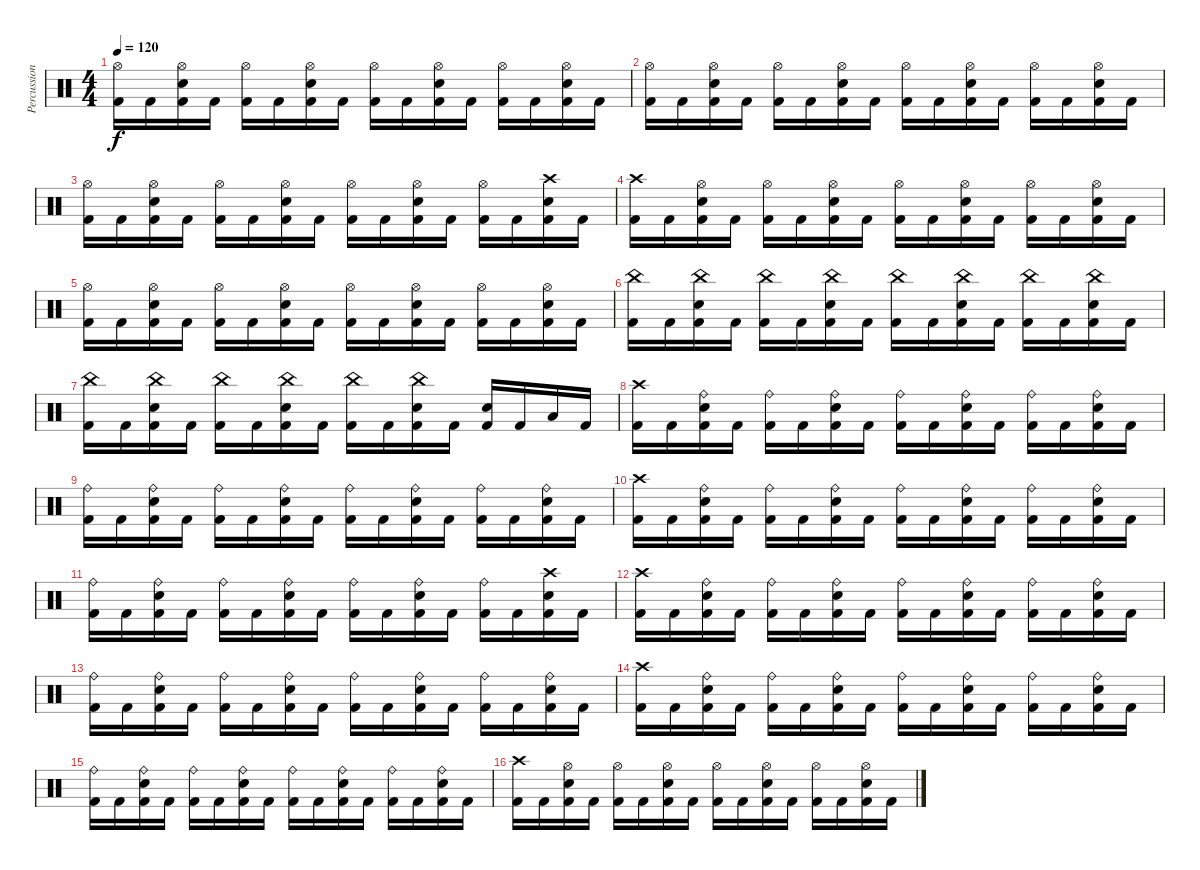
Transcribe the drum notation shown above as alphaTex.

\track ("Percussion" "Percussion") {instrument percussion}
\staff {score}
\articulation defaults
\ts (4 4)
\tempo 120
\clef neutral
\ks c
("Hi-Hat (open)" "Kick (hit) 2").16{dy f} "Kick (hit) 2".16 ("Hi-Hat (open)" "Snare (hit) 2" "Kick (hit) 2").16 "Kick (hit) 2".16 ("Hi-Hat (open)" "Kick (hit) 2").16 "Kick (hit) 2".16 ("Hi-Hat (open)" "Snare (hit) 2" "Kick (hit) 2").16 "Kick (hit) 2".16 ("Hi-Hat (open)" "Kick (hit) 2").16 "Kick (hit) 2".16 ("Hi-Hat (open)" "Snare (hit) 2" "Kick (hit) 2").16 "Kick (hit) 2".16 ("Hi-Hat (open)" "Kick (hit) 2").16 "Kick (hit) 2".16 ("Hi-Hat (open)" "Snare (hit) 2" "Kick (hit) 2").16 "Kick (hit) 2".16 |
("Hi-Hat (open)" "Kick (hit) 2").16 "Kick (hit) 2".16 ("Hi-Hat (open)" "Snare (hit) 2" "Kick (hit) 2").16 "Kick (hit) 2".16 ("Hi-Hat (open)" "Kick (hit) 2").16 "Kick (hit) 2".16 ("Hi-Hat (open)" "Snare (hit) 2" "Kick (hit) 2").16 "Kick (hit) 2".16 ("Hi-Hat (open)" "Kick (hit) 2").16 "Kick (hit) 2".16 ("Hi-Hat (open)" "Snare (hit) 2" "Kick (hit) 2").16 "Kick (hit) 2".16 ("Hi-Hat (open)" "Kick (hit) 2").16 "Kick (hit) 2".16 ("Hi-Hat (open)" "Snare (hit) 2" "Kick (hit) 2").16 "Kick (hit) 2".16 |
("Hi-Hat (open)" "Kick (hit) 2").16 "Kick (hit) 2".16 ("Hi-Hat (open)" "Snare (hit) 2" "Kick (hit) 2").16 "Kick (hit) 2".16 ("Hi-Hat (open)" "Kick (hit) 2").16 "Kick (hit) 2".16 ("Hi-Hat (open)" "Snare (hit) 2" "Kick (hit) 2").16 "Kick (hit) 2".16 ("Hi-Hat (open)" "Kick (hit) 2").16 "Kick (hit) 2".16 ("Hi-Hat (open)" "Snare (hit) 2" "Kick (hit) 2").16 "Kick (hit) 2".16 ("Hi-Hat (open)" "Kick (hit) 2").16 "Kick (hit) 2".16 ("Crash high (hit)" "Snare (hit) 2" "Kick (hit) 2").16 "Kick (hit) 2".16 |
("Crash high (hit)" "Kick (hit) 2").16 "Kick (hit) 2".16 ("Hi-Hat (open)" "Snare (hit) 2" "Kick (hit) 2").16 "Kick (hit) 2".16 ("Hi-Hat (open)" "Kick (hit) 2").16 "Kick (hit) 2".16 ("Hi-Hat (open)" "Snare (hit) 2" "Kick (hit) 2").16 "Kick (hit) 2".16 ("Hi-Hat (open)" "Kick (hit) 2").16 "Kick (hit) 2".16 ("Hi-Hat (open)" "Snare (hit) 2" "Kick (hit) 2").16 "Kick (hit) 2".16 ("Hi-Hat (open)" "Kick (hit) 2").16 "Kick (hit) 2".16 ("Hi-Hat (open)" "Snare (hit) 2" "Kick (hit) 2").16 "Kick (hit) 2".16 |
("Hi-Hat (open)" "Kick (hit) 2").16 "Kick (hit) 2".16 ("Hi-Hat (open)" "Snare (hit) 2" "Kick (hit) 2").16 "Kick (hit) 2".16 ("Hi-Hat (open)" "Kick (hit) 2").16 "Kick (hit) 2".16 ("Hi-Hat (open)" "Snare (hit) 2" "Kick (hit) 2").16 "Kick (hit) 2".16 ("Hi-Hat (open)" "Kick (hit) 2").16 "Kick (hit) 2".16 ("Hi-Hat (open)" "Snare (hit) 2" "Kick (hit) 2").16 "Kick (hit) 2".16 ("Hi-Hat (open)" "Kick (hit) 2").16 "Kick (hit) 2".16 ("Hi-Hat (open)" "Snare (hit) 2" "Kick (hit) 2").16 "Kick (hit) 2".16 |
("China (hit)" "Kick (hit) 2").16 "Kick (hit) 2".16 ("China (hit)" "Snare (hit) 2" "Kick (hit) 2").16 "Kick (hit) 2".16 ("China (hit)" "Kick (hit) 2").16 "Kick (hit) 2".16 ("China (hit)" "Snare (hit) 2" "Kick (hit) 2").16 "Kick (hit) 2".16 ("China (hit)" "Kick (hit) 2").16 "Kick (hit) 2".16 ("China (hit)" "Snare (hit) 2" "Kick (hit) 2").16 "Kick (hit) 2".16 ("China (hit)" "Kick (hit) 2").16 "Kick (hit) 2".16 ("China (hit)" "Snare (hit) 2" "Kick (hit) 2").16 "Kick (hit) 2".16 |
("China (hit)" "Kick (hit) 2").16 "Kick (hit) 2".16 ("China (hit)" "Snare (hit) 2" "Kick (hit) 2").16 "Kick (hit) 2".16 ("China (hit)" "Kick (hit) 2").16 "Kick (hit) 2".16 ("China (hit)" "Snare (hit) 2" "Kick (hit) 2").16 "Kick (hit) 2".16 ("China (hit)" "Kick (hit) 2").16 "Kick (hit) 2".16 ("China (hit)" "Snare (hit) 2" "Kick (hit) 2").16 "Kick (hit) 2".16 ("Snare (hit) 2" "Kick (hit) 2").16 "Kick (hit) 2".16 "Low Tom (hit)".16 "Kick (hit) 2".16 |
("Crash high (hit)" "Kick (hit) 2").16 "Kick (hit) 2".16 ("Ride (bell)" "Snare (hit) 2" "Kick (hit) 2").16 "Kick (hit) 2".16 ("Ride (bell)" "Kick (hit) 2").16 "Kick (hit) 2".16 ("Ride (bell)" "Snare (hit) 2" "Kick (hit) 2").16 "Kick (hit) 2".16 ("Ride (bell)" "Kick (hit) 2").16 "Kick (hit) 2".16 ("Ride (bell)" "Snare (hit) 2" "Kick (hit) 2").16 "Kick (hit) 2".16 ("Ride (bell)" "Kick (hit) 2").16 "Kick (hit) 2".16 ("Ride (bell)" "Snare (hit) 2" "Kick (hit) 2").16 "Kick (hit) 2".16 |
("Ride (bell)" "Kick (hit) 2").16 "Kick (hit) 2".16 ("Ride (bell)" "Snare (hit) 2" "Kick (hit) 2").16 "Kick (hit) 2".16 ("Ride (bell)" "Kick (hit) 2").16 "Kick (hit) 2".16 ("Ride (bell)" "Snare (hit) 2" "Kick (hit) 2").16 "Kick (hit) 2".16 ("Ride (bell)" "Kick (hit) 2").16 "Kick (hit) 2".16 ("Ride (bell)" "Snare (hit) 2" "Kick (hit) 2").16 "Kick (hit) 2".16 ("Ride (bell)" "Kick (hit) 2").16 "Kick (hit) 2".16 ("Ride (bell)" "Snare (hit) 2" "Kick (hit) 2").16 "Kick (hit) 2".16 |
("Crash high (hit)" "Kick (hit) 2").16 "Kick (hit) 2".16 ("Ride (bell)" "Snare (hit) 2" "Kick (hit) 2").16 "Kick (hit) 2".16 ("Ride (bell)" "Kick (hit) 2").16 "Kick (hit) 2".16 ("Ride (bell)" "Snare (hit) 2" "Kick (hit) 2").16 "Kick (hit) 2".16 ("Ride (bell)" "Kick (hit) 2").16 "Kick (hit) 2".16 ("Ride (bell)" "Snare (hit) 2" "Kick (hit) 2").16 "Kick (hit) 2".16 ("Ride (bell)" "Kick (hit) 2").16 "Kick (hit) 2".16 ("Ride (bell)" "Snare (hit) 2" "Kick (hit) 2").16 "Kick (hit) 2".16 |
("Ride (bell)" "Kick (hit) 2").16 "Kick (hit) 2".16 ("Ride (bell)" "Snare (hit) 2" "Kick (hit) 2").16 "Kick (hit) 2".16 ("Ride (bell)" "Kick (hit) 2").16 "Kick (hit) 2".16 ("Ride (bell)" "Snare (hit) 2" "Kick (hit) 2").16 "Kick (hit) 2".16 ("Ride (bell)" "Kick (hit) 2").16 "Kick (hit) 2".16 ("Ride (bell)" "Snare (hit) 2" "Kick (hit) 2").16 "Kick (hit) 2".16 ("Ride (bell)" "Kick (hit) 2").16 "Kick (hit) 2".16 ("Crash high (hit)" "Snare (hit) 2" "Kick (hit) 2").16 "Kick (hit) 2".16 |
("Crash high (hit)" "Kick (hit) 2").16 "Kick (hit) 2".16 ("Ride (bell)" "Snare (hit) 2" "Kick (hit) 2").16 "Kick (hit) 2".16 ("Ride (bell)" "Kick (hit) 2").16 "Kick (hit) 2".16 ("Ride (bell)" "Snare (hit) 2" "Kick (hit) 2").16 "Kick (hit) 2".16 ("Ride (bell)" "Kick (hit) 2").16 "Kick (hit) 2".16 ("Ride (bell)" "Snare (hit) 2" "Kick (hit) 2").16 "Kick (hit) 2".16 ("Ride (bell)" "Kick (hit) 2").16 "Kick (hit) 2".16 ("Ride (bell)" "Snare (hit) 2" "Kick (hit) 2").16 "Kick (hit) 2".16 |
("Ride (bell)" "Kick (hit) 2").16 "Kick (hit) 2".16 ("Ride (bell)" "Snare (hit) 2" "Kick (hit) 2").16 "Kick (hit) 2".16 ("Ride (bell)" "Kick (hit) 2").16 "Kick (hit) 2".16 ("Ride (bell)" "Snare (hit) 2" "Kick (hit) 2").16 "Kick (hit) 2".16 ("Ride (bell)" "Kick (hit) 2").16 "Kick (hit) 2".16 ("Ride (bell)" "Snare (hit) 2" "Kick (hit) 2").16 "Kick (hit) 2".16 ("Ride (bell)" "Kick (hit) 2").16 "Kick (hit) 2".16 ("Ride (bell)" "Snare (hit) 2" "Kick (hit) 2").16 "Kick (hit) 2".16 |
("Crash high (hit)" "Kick (hit) 2").16 "Kick (hit) 2".16 ("Ride (bell)" "Snare (hit) 2" "Kick (hit) 2").16 "Kick (hit) 2".16 ("Ride (bell)" "Kick (hit) 2").16 "Kick (hit) 2".16 ("Ride (bell)" "Snare (hit) 2" "Kick (hit) 2").16 "Kick (hit) 2".16 ("Ride (bell)" "Kick (hit) 2").16 "Kick (hit) 2".16 ("Ride (bell)" "Snare (hit) 2" "Kick (hit) 2").16 "Kick (hit) 2".16 ("Ride (bell)" "Kick (hit) 2").16 "Kick (hit) 2".16 ("Ride (bell)" "Snare (hit) 2" "Kick (hit) 2").16 "Kick (hit) 2".16 |
("Ride (bell)" "Kick (hit) 2").16 "Kick (hit) 2".16 ("Ride (bell)" "Snare (hit) 2" "Kick (hit) 2").16 "Kick (hit) 2".16 ("Ride (bell)" "Kick (hit) 2").16 "Kick (hit) 2".16 ("Ride (bell)" "Snare (hit) 2" "Kick (hit) 2").16 "Kick (hit) 2".16 ("Ride (bell)" "Kick (hit) 2").16 "Kick (hit) 2".16 ("Ride (bell)" "Snare (hit) 2" "Kick (hit) 2").16 "Kick (hit) 2".16 ("Ride (bell)" "Kick (hit) 2").16 "Kick (hit) 2".16 ("Ride (bell)" "Snare (hit) 2" "Kick (hit) 2").16 "Kick (hit) 2".16 |
("Crash high (hit)" "Kick (hit) 2").16 "Kick (hit) 2".16 ("Hi-Hat (open)" "Snare (hit) 2" "Kick (hit) 2").16 "Kick (hit) 2".16 ("Hi-Hat (open)" "Kick (hit) 2").16 "Kick (hit) 2".16 ("Hi-Hat (open)" "Snare (hit) 2" "Kick (hit) 2").16 "Kick (hit) 2".16 ("Hi-Hat (open)" "Kick (hit) 2").16 "Kick (hit) 2".16 ("Hi-Hat (open)" "Snare (hit) 2" "Kick (hit) 2").16 "Kick (hit) 2".16 ("Hi-Hat (open)" "Kick (hit) 2").16 "Kick (hit) 2".16 ("Hi-Hat (open)" "Snare (hit) 2" "Kick (hit) 2").16 "Kick (hit) 2".16
